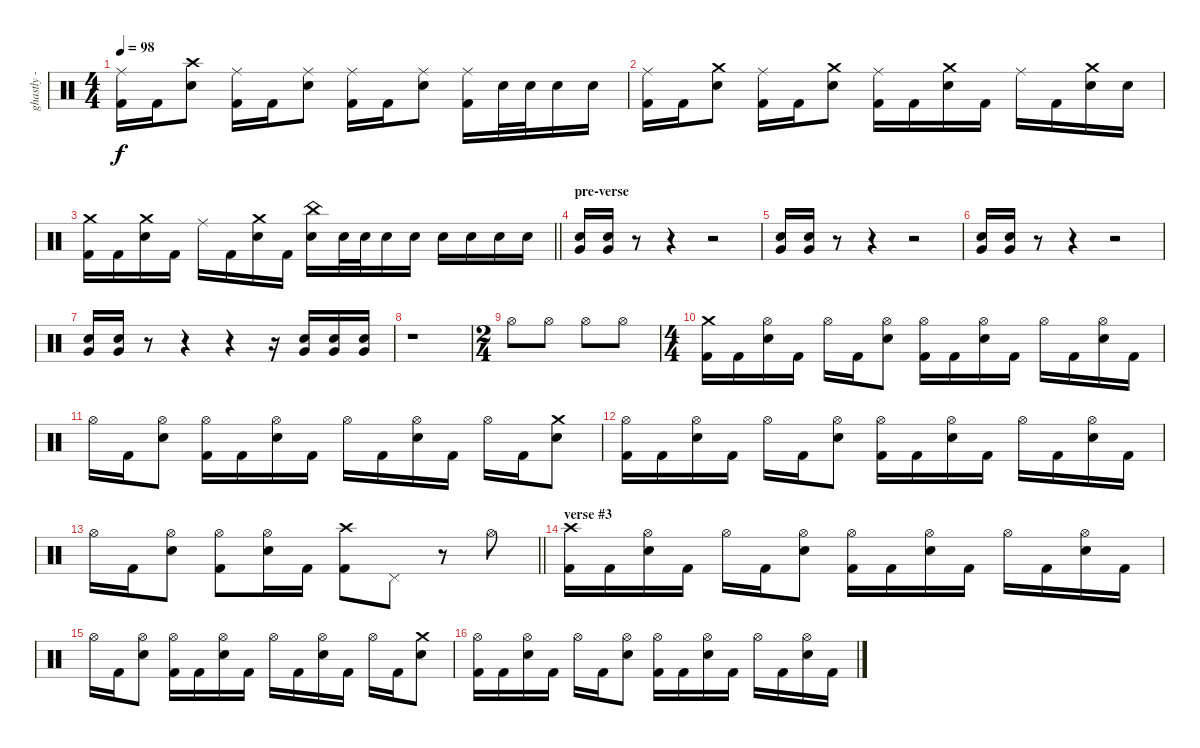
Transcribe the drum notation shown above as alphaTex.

\track ("ghastly - drums" "ghastly - ") {instrument percussion}
\staff {score}
\articulation defaults
\ts (4 4)
\tempo 98
\clef neutral
\ks c
("Ride (middle)" "Kick (hit) 2").16{dy f} "Kick (hit) 2".16 ("Crash high (hit)" "Electric Snare (hit)").8 ("Ride (middle)" "Kick (hit) 2").16 "Kick (hit) 2".16 ("Ride (middle)" "Electric Snare (hit)").8 ("Ride (middle)" "Kick (hit) 2").16 "Kick (hit) 2".16 ("Ride (middle)" "Electric Snare (hit)").8 ("Ride (middle)" "Kick (hit) 2").16 "Electric Snare (hit)".32 "Electric Snare (hit)".32 "Electric Snare (hit)".16 "Electric Snare (hit)".16 |
("Ride (middle)" "Kick (hit) 2").16 "Kick (hit) 2".16 ("Crash medium (hit)" "Electric Snare (hit)").8 ("Ride (middle)" "Kick (hit) 2").16 "Kick (hit) 2".16 ("Crash medium (hit)" "Electric Snare (hit)").8 ("Ride (middle)" "Kick (hit) 2").16 "Kick (hit) 2".16 ("Crash medium (hit)" "Electric Snare (hit)").16 "Kick (hit) 2".16 "Ride (middle)".16 "Kick (hit) 2".16 ("Crash medium (hit)" "Electric Snare (hit)").16 "Electric Snare (hit)".16 |
\barLineRight lightlight
("Crash medium (hit)" "Kick (hit) 2").16 "Kick (hit) 2".16 ("Crash medium (hit)" "Electric Snare (hit)").16 "Kick (hit) 2".16 "Ride (middle)".16 "Kick (hit) 2".16 ("Crash medium (hit)" "Electric Snare (hit)").16 "Kick (hit) 2".16 ("China (hit)" "Electric Snare (hit)").16 "Electric Snare (hit)".32 "Electric Snare (hit)".32 "Electric Snare (hit)".16 "Electric Snare (hit)".16 "Electric Snare (hit)".16 "Electric Snare (hit)".16 "Electric Snare (hit)".16 "Electric Snare (hit)".16 |
\section ("" "pre-verse")
("Electric Snare (hit)" "Very Low Tom (hit)").16 ("Electric Snare (hit)" "Very Low Tom (hit)").16 r.8 r.4 r.2 |
("Electric Snare (hit)" "Very Low Tom (hit)").16 ("Electric Snare (hit)" "Very Low Tom (hit)").16 r.8 r.4 r.2 |
("Electric Snare (hit)" "Very Low Tom (hit)").16 ("Electric Snare (hit)" "Very Low Tom (hit)").16 r.8 r.4 r.2 |
("Electric Snare (hit)" "Very Low Tom (hit)").16 ("Electric Snare (hit)" "Very Low Tom (hit)").16 r.8 r.4 r.4 r.16 ("Electric Snare (hit)" "Very Low Tom (hit)").16 ("Electric Snare (hit)" "Very Low Tom (hit)").16 ("Electric Snare (hit)" "Very Low Tom (hit)").16 |
r.1 |
\ts (2 4)
"Hi-Hat (open)".8 "Hi-Hat (open)".8 "Hi-Hat (open)".8 "Hi-Hat (open)".8 |
\ts (4 4)
("Crash medium (hit)" "Kick (hit) 2").16 "Kick (hit) 2".16 ("Hi-Hat (open)" "Electric Snare (hit)").16 "Kick (hit) 2".16 "Hi-Hat (open)".16 "Kick (hit) 2".16 ("Hi-Hat (open)" "Electric Snare (hit)").8 ("Hi-Hat (open)" "Kick (hit) 2").16 "Kick (hit) 2".16 ("Hi-Hat (open)" "Electric Snare (hit)").16 "Kick (hit) 2".16 "Hi-Hat (open)".16 "Kick (hit) 2".16 ("Hi-Hat (open)" "Electric Snare (hit)").16 "Kick (hit) 2".16 |
"Hi-Hat (open)".16 "Kick (hit) 2".16 ("Hi-Hat (open)" "Electric Snare (hit)").8 ("Hi-Hat (open)" "Kick (hit) 2").16 "Kick (hit) 2".16 ("Hi-Hat (open)" "Electric Snare (hit)").16 "Kick (hit) 2".16 "Hi-Hat (open)".16 "Kick (hit) 2".16 ("Hi-Hat (open)" "Electric Snare (hit)").16 "Kick (hit) 2".16 "Hi-Hat (open)".16 "Kick (hit) 2".16 ("Crash medium (hit)" "Electric Snare (hit)").8 |
("Hi-Hat (open)" "Kick (hit) 2").16 "Kick (hit) 2".16 ("Hi-Hat (open)" "Electric Snare (hit)").16 "Kick (hit) 2".16 "Hi-Hat (open)".16 "Kick (hit) 2".16 ("Hi-Hat (open)" "Electric Snare (hit)").8 ("Hi-Hat (open)" "Kick (hit) 2").16 "Kick (hit) 2".16 ("Hi-Hat (open)" "Electric Snare (hit)").16 "Kick (hit) 2".16 "Hi-Hat (open)".16 "Kick (hit) 2".16 ("Hi-Hat (open)" "Electric Snare (hit)").16 "Kick (hit) 2".16 |
\barLineRight lightlight "Hi-Hat (open)".16 "Kick (hit) 2".16
("Hi-Hat (open)" "Electric Snare (hit)").8 ("Hi-Hat (open)" "Kick (hit) 2").8 ("Hi-Hat (open)" "Electric Snare (hit)").16 "Kick (hit) 2".16 ("Crash high (hit)" "Kick (hit) 2").8 "Pedal Hi-Hat (hit)".8 r.8 "Hi-Hat (open)".8 |
\section ("" "verse #3")
("Crash high (hit)" "Kick (hit) 2").16 "Kick (hit) 2".16 ("Hi-Hat (open)" "Electric Snare (hit)").16 "Kick (hit) 2".16 "Hi-Hat (open)".16 "Kick (hit) 2".16 ("Hi-Hat (open)" "Electric Snare (hit)").8 ("Hi-Hat (open)" "Kick (hit) 2").16 "Kick (hit) 2".16 ("Hi-Hat (open)" "Electric Snare (hit)").16 "Kick (hit) 2".16 "Hi-Hat (open)".16 "Kick (hit) 2".16 ("Hi-Hat (open)" "Electric Snare (hit)").16 "Kick (hit) 2".16 |
"Hi-Hat (open)".16 "Kick (hit) 2".16 ("Hi-Hat (open)" "Electric Snare (hit)").8 ("Hi-Hat (open)" "Kick (hit) 2").16 "Kick (hit) 2".16 ("Hi-Hat (open)" "Electric Snare (hit)").16 "Kick (hit) 2".16 "Hi-Hat (open)".16 "Kick (hit) 2".16 ("Hi-Hat (open)" "Electric Snare (hit)").16 "Kick (hit) 2".16 "Hi-Hat (open)".16 "Kick (hit) 2".16 ("Crash medium (hit)" "Electric Snare (hit)").8 |
("Hi-Hat (open)" "Kick (hit) 2").16 "Kick (hit) 2".16 ("Hi-Hat (open)" "Electric Snare (hit)").16 "Kick (hit) 2".16 "Hi-Hat (open)".16 "Kick (hit) 2".16 ("Hi-Hat (open)" "Electric Snare (hit)").8 ("Hi-Hat (open)" "Kick (hit) 2").16 "Kick (hit) 2".16 ("Hi-Hat (open)" "Electric Snare (hit)").16 "Kick (hit) 2".16 "Hi-Hat (open)".16 "Kick (hit) 2".16 ("Hi-Hat (open)" "Electric Snare (hit)").16 "Kick (hit) 2".16
